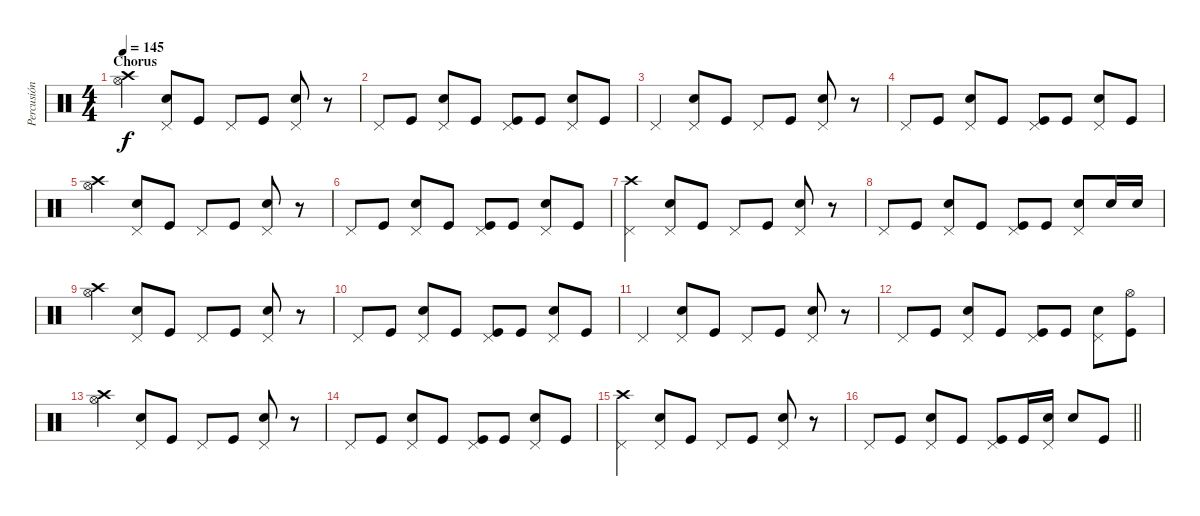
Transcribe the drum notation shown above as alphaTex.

\track ("Percusión" "Percusión") {instrument percussion}
\staff {score}
\articulation defaults
\ts (4 4)
\section ("" "Chorus")
\tempo 145
\clef neutral
\ks c
("Crash high (hit)" "Hi-Hat (open)").4{dy f} ("Pedal Hi-Hat (hit)" "Snare (hit) 2").8 "Kick (hit)".8 "Pedal Hi-Hat (hit)".8 "Kick (hit)".8 ("Pedal Hi-Hat (hit)" "Snare (hit) 2").8 r.8 |
"Pedal Hi-Hat (hit)".8 "Kick (hit)".8 ("Pedal Hi-Hat (hit)" "Snare (hit) 2").8 "Kick (hit)".8 ("Pedal Hi-Hat (hit)" "Kick (hit)").8 "Kick (hit)".8 ("Pedal Hi-Hat (hit)" "Snare (hit) 2").8 "Kick (hit)".8 |
"Pedal Hi-Hat (hit)".4 ("Pedal Hi-Hat (hit)" "Snare (hit) 2").8 "Kick (hit)".8 "Pedal Hi-Hat (hit)".8 "Kick (hit)".8 ("Pedal Hi-Hat (hit)" "Snare (hit) 2").8 r.8 |
"Pedal Hi-Hat (hit)".8 "Kick (hit)".8 ("Pedal Hi-Hat (hit)" "Snare (hit) 2").8 "Kick (hit)".8 ("Pedal Hi-Hat (hit)" "Kick (hit)").8 "Kick (hit)".8 ("Pedal Hi-Hat (hit)" "Snare (hit) 2").8 "Kick (hit)".8 |
("Crash high (hit)" "Hi-Hat (open)").4 ("Pedal Hi-Hat (hit)" "Snare (hit) 2").8 "Kick (hit)".8 "Pedal Hi-Hat (hit)".8 "Kick (hit)".8 ("Pedal Hi-Hat (hit)" "Snare (hit) 2").8 r.8 |
"Pedal Hi-Hat (hit)".8 "Kick (hit)".8 ("Pedal Hi-Hat (hit)" "Snare (hit) 2").8 "Kick (hit)".8 ("Pedal Hi-Hat (hit)" "Kick (hit)").8 "Kick (hit)".8 ("Pedal Hi-Hat (hit)" "Snare (hit) 2").8 "Kick (hit)".8 |
("Crash high (hit)" "Pedal Hi-Hat (hit)").4 ("Pedal Hi-Hat (hit)" "Snare (hit) 2").8 "Kick (hit)".8 "Pedal Hi-Hat (hit)".8 "Kick (hit)".8 ("Pedal Hi-Hat (hit)" "Snare (hit) 2").8 r.8 |
"Pedal Hi-Hat (hit)".8 "Kick (hit)".8 ("Pedal Hi-Hat (hit)" "Snare (hit) 2").8 "Kick (hit)".8 ("Pedal Hi-Hat (hit)" "Kick (hit)").8 "Kick (hit)".8 ("Pedal Hi-Hat (hit)" "Snare (hit) 2").8 "Snare (hit) 2".16 "Snare (hit) 2".16 |
("Crash high (hit)" "Hi-Hat (open)").4 ("Pedal Hi-Hat (hit)" "Snare (hit) 2").8 "Kick (hit)".8 "Pedal Hi-Hat (hit)".8 "Kick (hit)".8 ("Pedal Hi-Hat (hit)" "Snare (hit) 2").8 r.8 |
"Pedal Hi-Hat (hit)".8 "Kick (hit)".8 ("Pedal Hi-Hat (hit)" "Snare (hit) 2").8 "Kick (hit)".8 ("Pedal Hi-Hat (hit)" "Kick (hit)").8 "Kick (hit)".8 ("Pedal Hi-Hat (hit)" "Snare (hit) 2").8 "Kick (hit)".8 |
"Pedal Hi-Hat (hit)".4 ("Pedal Hi-Hat (hit)" "Snare (hit) 2").8 "Kick (hit)".8 "Pedal Hi-Hat (hit)".8 "Kick (hit)".8 ("Pedal Hi-Hat (hit)" "Snare (hit) 2").8 r.8 |
"Pedal Hi-Hat (hit)".8 "Kick (hit)".8 ("Pedal Hi-Hat (hit)" "Snare (hit) 2").8 "Kick (hit)".8 ("Pedal Hi-Hat (hit)" "Kick (hit)").8 "Kick (hit)".8 ("Pedal Hi-Hat (hit)" "Snare (hit) 2").8 ("Hi-Hat (open)" "Kick (hit)").8 |
("Crash high (hit)" "Hi-Hat (open)").4 ("Pedal Hi-Hat (hit)" "Snare (hit) 2").8 "Kick (hit)".8 "Pedal Hi-Hat (hit)".8 "Kick (hit)".8 ("Pedal Hi-Hat (hit)" "Snare (hit) 2").8 r.8 |
"Pedal Hi-Hat (hit)".8 "Kick (hit)".8 ("Pedal Hi-Hat (hit)" "Snare (hit) 2").8 "Kick (hit)".8 ("Pedal Hi-Hat (hit)" "Kick (hit)").8 "Kick (hit)".8 ("Pedal Hi-Hat (hit)" "Snare (hit) 2").8 "Kick (hit)".8 |
("Crash high (hit)" "Pedal Hi-Hat (hit)").4 ("Pedal Hi-Hat (hit)" "Snare (hit) 2").8 "Kick (hit)".8 "Pedal Hi-Hat (hit)".8 "Kick (hit)".8 ("Pedal Hi-Hat (hit)" "Snare (hit) 2").8 r.8 |
\barLineRight lightlight "Pedal Hi-Hat (hit)".8 "Kick (hit)".8
("Pedal Hi-Hat (hit)" "Snare (hit) 2").8 "Kick (hit)".8 ("Pedal Hi-Hat (hit)" "Kick (hit)").8 "Kick (hit)".16 ("Pedal Hi-Hat (hit)" "Snare (hit) 2").16 "Snare (hit) 2".8 "Kick (hit)".8
